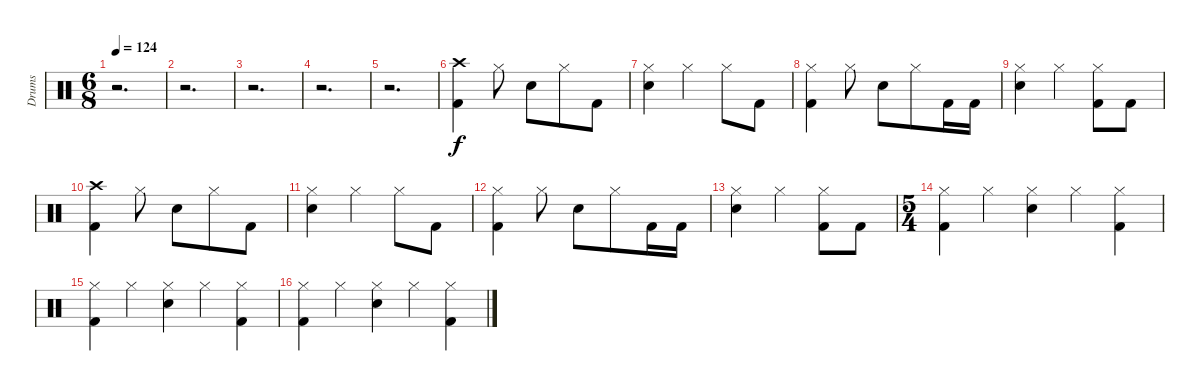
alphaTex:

\track ("Drums" "Drums") {instrument percussion}
\staff {score}
\articulation defaults
\ts (6 8)
\tempo 124
\clef neutral
\ks c
r.2{d dy f} |
r.2{d} |
r.2{d} |
r.2{d} |
r.2{d} |
("Crash high (hit)" "Kick (hit) 2").4 "Hi-Hat (closed)".8 "Electric Snare (hit)".8 "Hi-Hat (closed)".8 "Kick (hit) 2".8 |
("Hi-Hat (closed)" "Electric Snare (hit)").4 "Hi-Hat (closed)".4 "Hi-Hat (closed)".8 "Kick (hit) 2".8 |
("Hi-Hat (closed)" "Kick (hit) 2").4 "Hi-Hat (closed)".8 "Electric Snare (hit)".8 "Hi-Hat (closed)".8 "Kick (hit) 2".16 "Kick (hit) 2".16 |
("Hi-Hat (closed)" "Electric Snare (hit)").4 "Hi-Hat (closed)".4 ("Hi-Hat (closed)" "Kick (hit) 2").8 "Kick (hit) 2".8 |
("Crash high (hit)" "Kick (hit) 2").4 "Hi-Hat (closed)".8 "Electric Snare (hit)".8 "Hi-Hat (closed)".8 "Kick (hit) 2".8 |
("Hi-Hat (closed)" "Electric Snare (hit)").4 "Hi-Hat (closed)".4 "Hi-Hat (closed)".8 "Kick (hit) 2".8 |
("Hi-Hat (closed)" "Kick (hit) 2").4 "Hi-Hat (closed)".8 "Electric Snare (hit)".8 "Hi-Hat (closed)".8 "Kick (hit) 2".16 "Kick (hit) 2".16 |
("Hi-Hat (closed)" "Electric Snare (hit)").4 "Hi-Hat (closed)".4 ("Hi-Hat (closed)" "Kick (hit) 2").8 "Kick (hit) 2".8 |
\ts (5 4)
\section ("" "")
("Hi-Hat (closed)" "Kick (hit) 2").4 "Hi-Hat (closed)".4 ("Hi-Hat (closed)" "Electric Snare (hit)").4 "Hi-Hat (closed)".4 ("Hi-Hat (closed)" "Kick (hit) 2").4 |
("Hi-Hat (closed)" "Kick (hit) 2").4 "Hi-Hat (closed)".4 ("Hi-Hat (closed)" "Electric Snare (hit)").4 "Hi-Hat (closed)".4 ("Hi-Hat (closed)" "Kick (hit) 2").4 |
("Hi-Hat (closed)" "Kick (hit) 2").4 "Hi-Hat (closed)".4 ("Hi-Hat (closed)" "Electric Snare (hit)").4 "Hi-Hat (closed)".4 ("Hi-Hat (closed)" "Kick (hit) 2").4
